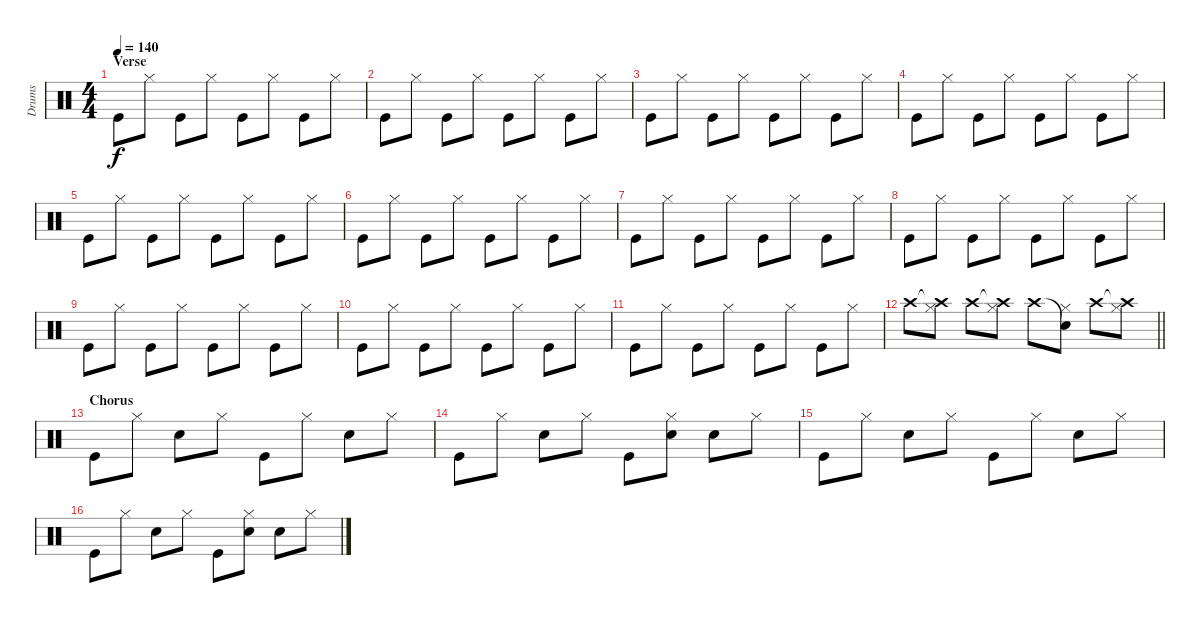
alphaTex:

\track ("Drums" "Drums") {instrument percussion}
\staff {score}
\articulation defaults
\ts (4 4)
\section ("" "Verse")
\tempo 140
\clef neutral
\ks c "Kick (hit)".8{dy f} "Hi-Hat (closed)".8 "Kick (hit)".8 "Hi-Hat (closed)".8 "Kick (hit)".8 "Hi-Hat (closed)".8 "Kick (hit)".8 "Hi-Hat (closed)".8
|
"Kick (hit)".8 "Hi-Hat (closed)".8 "Kick (hit)".8 "Hi-Hat (closed)".8 "Kick (hit)".8 "Hi-Hat (closed)".8 "Kick (hit)".8 "Hi-Hat (closed)".8 |
"Kick (hit)".8 "Hi-Hat (closed)".8 "Kick (hit)".8 "Hi-Hat (closed)".8 "Kick (hit)".8 "Hi-Hat (closed)".8 "Kick (hit)".8 "Hi-Hat (closed)".8 |
"Kick (hit)".8 "Hi-Hat (closed)".8 "Kick (hit)".8 "Hi-Hat (closed)".8 "Kick (hit)".8 "Hi-Hat (closed)".8 "Kick (hit)".8 "Hi-Hat (closed)".8 |
"Kick (hit)".8 "Hi-Hat (closed)".8 "Kick (hit)".8 "Hi-Hat (closed)".8 "Kick (hit)".8 "Hi-Hat (closed)".8 "Kick (hit)".8 "Hi-Hat (closed)".8 |
"Kick (hit)".8 "Hi-Hat (closed)".8 "Kick (hit)".8 "Hi-Hat (closed)".8 "Kick (hit)".8 "Hi-Hat (closed)".8 "Kick (hit)".8 "Hi-Hat (closed)".8 |
"Kick (hit)".8 "Hi-Hat (closed)".8 "Kick (hit)".8 "Hi-Hat (closed)".8 "Kick (hit)".8 "Hi-Hat (closed)".8 "Kick (hit)".8 "Hi-Hat (closed)".8 |
"Kick (hit)".8 "Hi-Hat (closed)".8 "Kick (hit)".8 "Hi-Hat (closed)".8 "Kick (hit)".8 "Hi-Hat (closed)".8 "Kick (hit)".8 "Hi-Hat (closed)".8 |
"Kick (hit)".8 "Hi-Hat (closed)".8 "Kick (hit)".8 "Hi-Hat (closed)".8 "Kick (hit)".8 "Hi-Hat (closed)".8 "Kick (hit)".8 "Hi-Hat (closed)".8 |
"Kick (hit)".8 "Hi-Hat (closed)".8 "Kick (hit)".8 "Hi-Hat (closed)".8 "Kick (hit)".8 "Hi-Hat (closed)".8 "Kick (hit)".8 "Hi-Hat (closed)".8 |
"Kick (hit)".8 "Hi-Hat (closed)".8 "Kick (hit)".8 "Hi-Hat (closed)".8 "Kick (hit)".8 "Hi-Hat (closed)".8 "Kick (hit)".8 "Hi-Hat (closed)".8 |
\barLineRight lightlight "Crash high (hit)".8
("Crash high (hit)"{t} "Hi-Hat (closed)").8 "Crash high (hit)".8 ("Crash high (hit)"{t} "Hi-Hat (closed)").8 "Crash high (hit)".8 ("Snare (hit)"{t} "Hi-Hat (closed)").8 "Crash high (hit)".8 ("Crash high (hit)"{t} "Hi-Hat (closed)").8 |
\section ("" "Chorus")
"Kick (hit)".8 "Hi-Hat (closed)".8 "Hand Clap (hit)".8 "Hi-Hat (closed)".8 "Kick (hit)".8 "Hi-Hat (closed)".8 "Hand Clap (hit)".8 "Hi-Hat (closed)".8 |
"Kick (hit)".8 "Hi-Hat (closed)".8 "Hand Clap (hit)".8 "Hi-Hat (closed)".8 "Kick (hit)".8 ("Hi-Hat (closed)" "Hand Clap (hit)").8 "Hand Clap (hit)".8 "Hi-Hat (closed)".8 |
"Kick (hit)".8 "Hi-Hat (closed)".8 "Hand Clap (hit)".8 "Hi-Hat (closed)".8 "Kick (hit)".8 "Hi-Hat (closed)".8 "Hand Clap (hit)".8 "Hi-Hat (closed)".8 |
"Kick (hit)".8 "Hi-Hat (closed)".8 "Hand Clap (hit)".8 "Hi-Hat (closed)".8 "Kick (hit)".8 ("Hi-Hat (closed)" "Hand Clap (hit)").8 "Hand Clap (hit)".8 "Hi-Hat (closed)".8
